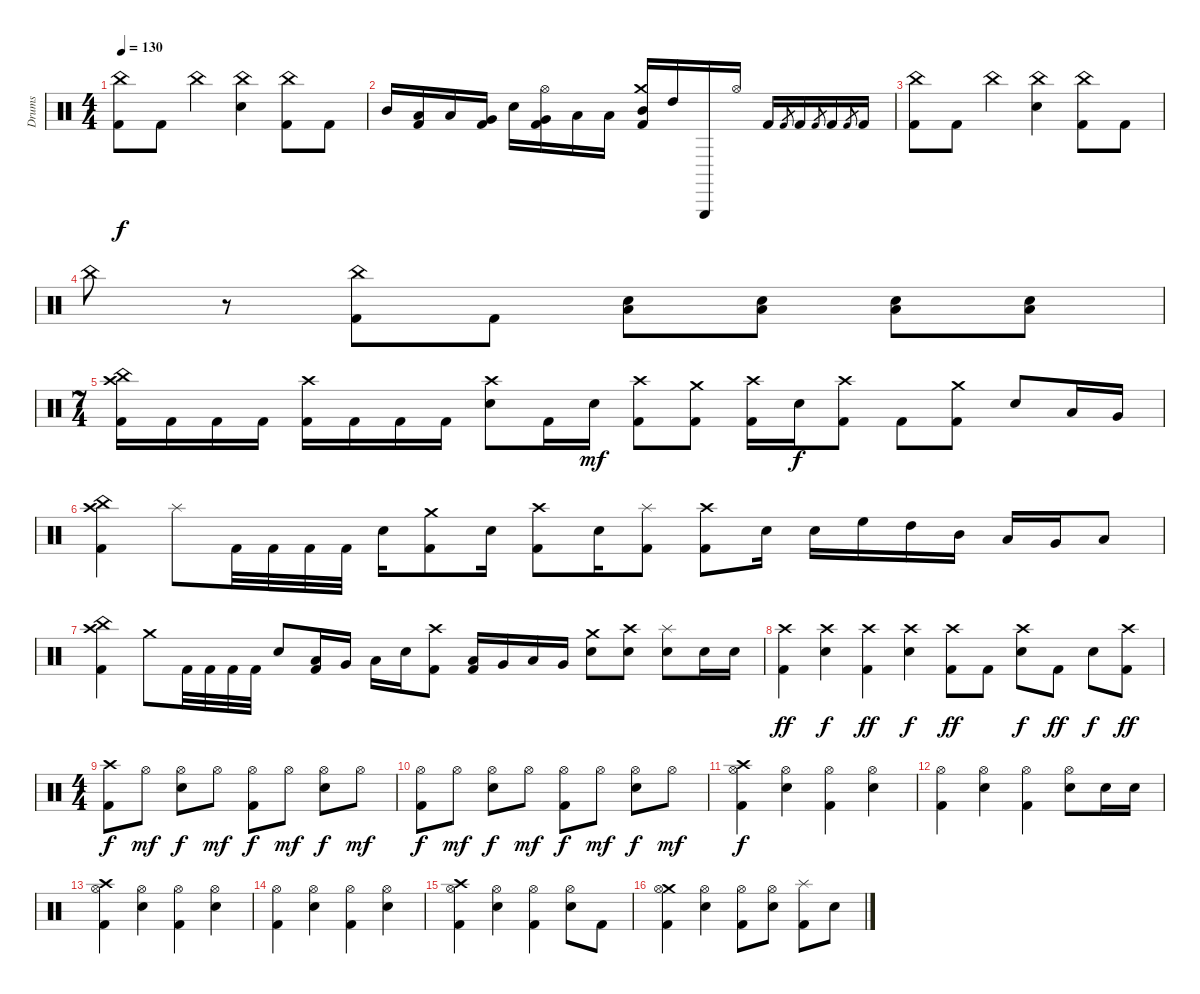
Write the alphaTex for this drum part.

\track ("Drums" "Drums") {instrument percussion}
\staff {score}
\articulation defaults
\ts (4 4)
\tempo 130
\clef neutral
\ks c
("China (hit)" "Kick (hit) 2").8{dy f} "Kick (hit) 2".8 "China (hit)".4 ("China (hit)" "Electric Snare (hit)").4 ("China (hit)" "Kick (hit) 2").8 "Kick (hit) 2".8 |
"Mid Tom (hit)".16 ("Low Tom (hit)" "Kick (hit) 2").16 "Low Tom (hit)".16 ("Very Low Tom (hit)" "Kick (hit) 2").16 "Electric Snare (hit)".16 ("Hi-Hat (open)" "Very Low Tom (hit)" "Kick (hit) 2").16 "Low Tom (hit)".16 "Low Tom (hit)".16 ("Crash medium (hit)" "Mid Tom (hit)" "Kick (hit) 2").16 "High Tom (hit)".16 "Triangle (hit)".16 "Hi-Hat (open)".16 "Kick (hit) 2".16 "Kick (hit) 2".8{gr} "Kick (hit) 2".16 "Kick (hit) 2".8{gr} "Kick (hit) 2".16 "Kick (hit) 2".8{gr} "Kick (hit) 2".16 |
("China (hit)" "Kick (hit) 2").8 "Kick (hit) 2".8 "China (hit)".4 ("China (hit)" "Electric Snare (hit)").4 ("China (hit)" "Kick (hit) 2").8 "Kick (hit) 2".8 |
"China (hit)".8 r.8 ("China (hit)" "Kick (hit) 2").8 "Kick (hit) 2".8 ("Electric Snare (hit)" "Low Floor Tom (hit)").8 ("Electric Snare (hit)" "Low Floor Tom (hit)").8 ("Electric Snare (hit)" "Low Floor Tom (hit)").8 ("Electric Snare (hit)" "Low Floor Tom (hit)").8 |
\ts (7 4)
("Crash high (hit)" "China (hit)" "Kick (hit) 2").16 "Kick (hit) 2".16 "Kick (hit) 2".16 "Kick (hit) 2".16 ("Crash high (hit)" "Kick (hit) 2").16 "Kick (hit) 2".16 "Kick (hit) 2".16 "Kick (hit) 2".16 ("Crash high (hit)" "Electric Snare (hit)").8 "Kick (hit) 2".16 "Electric Snare (hit)".16{dy mf} ("Crash high (hit)" "Kick (hit) 2").8 ("Crash medium (hit)" "Kick (hit) 2").8 ("Crash high (hit)" "Kick (hit) 2").16 "Electric Snare (hit)".16{dy f} ("Crash high (hit)" "Kick (hit) 2").8 "Kick (hit) 2".8 ("Crash medium (hit)" "Kick (hit) 2").8 "Electric Snare (hit)".8 "Low Tom (hit)".16 "Very Low Tom (hit)".16 |
("Crash high (hit)" "China (hit)" "Kick (hit) 2").4 "Splash (hit)".8 "Kick (hit) 2".32 "Kick (hit) 2".32 "Kick (hit) 2".32 "Kick (hit) 2".32 "Electric Snare (hit)".16 ("Crash medium (hit)" "Kick (hit) 2").8 "Electric Snare (hit)".16 ("Crash high (hit)" "Kick (hit) 2").8 "Electric Snare (hit)".16 ("Splash (hit)" "Kick (hit) 2").8 ("Crash high (hit)" "Kick (hit) 2").8 "Electric Snare (hit)".16 "Electric Snare (hit)".16 "High Floor Tom (hit)".16 "High Tom (hit)".16 "Mid Tom (hit)".16 "Low Tom (hit)".16 "Very Low Tom (hit)".16 "Low Floor Tom (hit)".8 |
("Crash high (hit)" "China (hit)" "Kick (hit) 2").4 "Crash medium (hit)".8 "Kick (hit) 2".32 "Kick (hit) 2".32 "Kick (hit) 2".32 "Kick (hit) 2".32 "Electric Snare (hit)".8 ("Low Floor Tom (hit)" "Kick (hit) 2").16 "Very Low Tom (hit)".16 "Low Tom (hit)".16 "Electric Snare (hit)".16 ("Crash high (hit)" "Kick (hit) 2").8 ("Low Floor Tom (hit)" "Kick (hit) 2").16 "Very Low Tom (hit)".16 "Low Tom (hit)".16 "Very Low Tom (hit)".16 ("Crash medium (hit)" "Electric Snare (hit)").8 ("Crash high (hit)" "Electric Snare (hit)").8 ("Splash (hit)" "Electric Snare (hit)").8 "Electric Snare (hit)".16 "Electric Snare (hit)".16 |
("Crash high (hit)" "Kick (hit) 2").4{dy ff} ("Crash high (hit)" "Electric Snare (hit)").4{dy f} ("Crash high (hit)" "Kick (hit) 2").4{dy ff} ("Crash high (hit)" "Electric Snare (hit)").4{dy f} ("Crash high (hit)" "Kick (hit) 2").8{dy ff} "Kick (hit) 2".8 ("Crash high (hit)" "Electric Snare (hit)").8{dy f} "Kick (hit) 2".8{dy ff} "Electric Snare (hit)".8{dy f} ("Crash high (hit)" "Kick (hit) 2").8{dy ff} |
\ts (4 4)
("Crash high (hit)" "Kick (hit) 2").8{dy f} "Hi-Hat (open)".8{dy mf} ("Hi-Hat (open)" "Electric Snare (hit)").8{dy f} "Hi-Hat (open)".8{dy mf} ("Hi-Hat (open)" "Kick (hit) 2").8{dy f} "Hi-Hat (open)".8{dy mf} ("Hi-Hat (open)" "Electric Snare (hit)").8{dy f} "Hi-Hat (open)".8{dy mf} |
("Hi-Hat (open)" "Kick (hit) 2").8{dy f} "Hi-Hat (open)".8{dy mf} ("Hi-Hat (open)" "Electric Snare (hit)").8{dy f} "Hi-Hat (open)".8{dy mf} ("Hi-Hat (open)" "Kick (hit) 2").8{dy f} "Hi-Hat (open)".8{dy mf} ("Hi-Hat (open)" "Electric Snare (hit)").8{dy f} "Hi-Hat (open)".8{dy mf} |
("Crash high (hit)" "Hi-Hat (open)" "Kick (hit) 2").4{dy f} ("Hi-Hat (open)" "Electric Snare (hit)").4 ("Hi-Hat (open)" "Kick (hit) 2").4 ("Hi-Hat (open)" "Electric Snare (hit)").4 |
("Hi-Hat (open)" "Kick (hit) 2").4 ("Hi-Hat (open)" "Electric Snare (hit)").4 ("Hi-Hat (open)" "Kick (hit) 2").4 ("Hi-Hat (open)" "Electric Snare (hit)").8 "Electric Snare (hit)".16 "Electric Snare (hit)".16 |
("Crash high (hit)" "Hi-Hat (open)" "Kick (hit) 2").4 ("Hi-Hat (open)" "Electric Snare (hit)").4 ("Hi-Hat (open)" "Kick (hit) 2").4 ("Hi-Hat (open)" "Electric Snare (hit)").4 |
("Hi-Hat (open)" "Kick (hit) 2").4 ("Hi-Hat (open)" "Electric Snare (hit)").4 ("Hi-Hat (open)" "Kick (hit) 2").4 ("Hi-Hat (open)" "Electric Snare (hit)").4 |
("Crash high (hit)" "Hi-Hat (open)" "Kick (hit) 2").4 ("Hi-Hat (open)" "Electric Snare (hit)").4 ("Hi-Hat (open)" "Kick (hit) 2").4 ("Hi-Hat (open)" "Electric Snare (hit)").8 "Kick (hit) 2".8 |
("Crash medium (hit)" "Hi-Hat (open)" "Kick (hit) 2").4 ("Hi-Hat (open)" "Electric Snare (hit)").4 ("Hi-Hat (open)" "Kick (hit) 2").8 ("Hi-Hat (open)" "Electric Snare (hit)").8 ("Splash (hit)" "Kick (hit) 2").8 "Electric Snare (hit)".8
